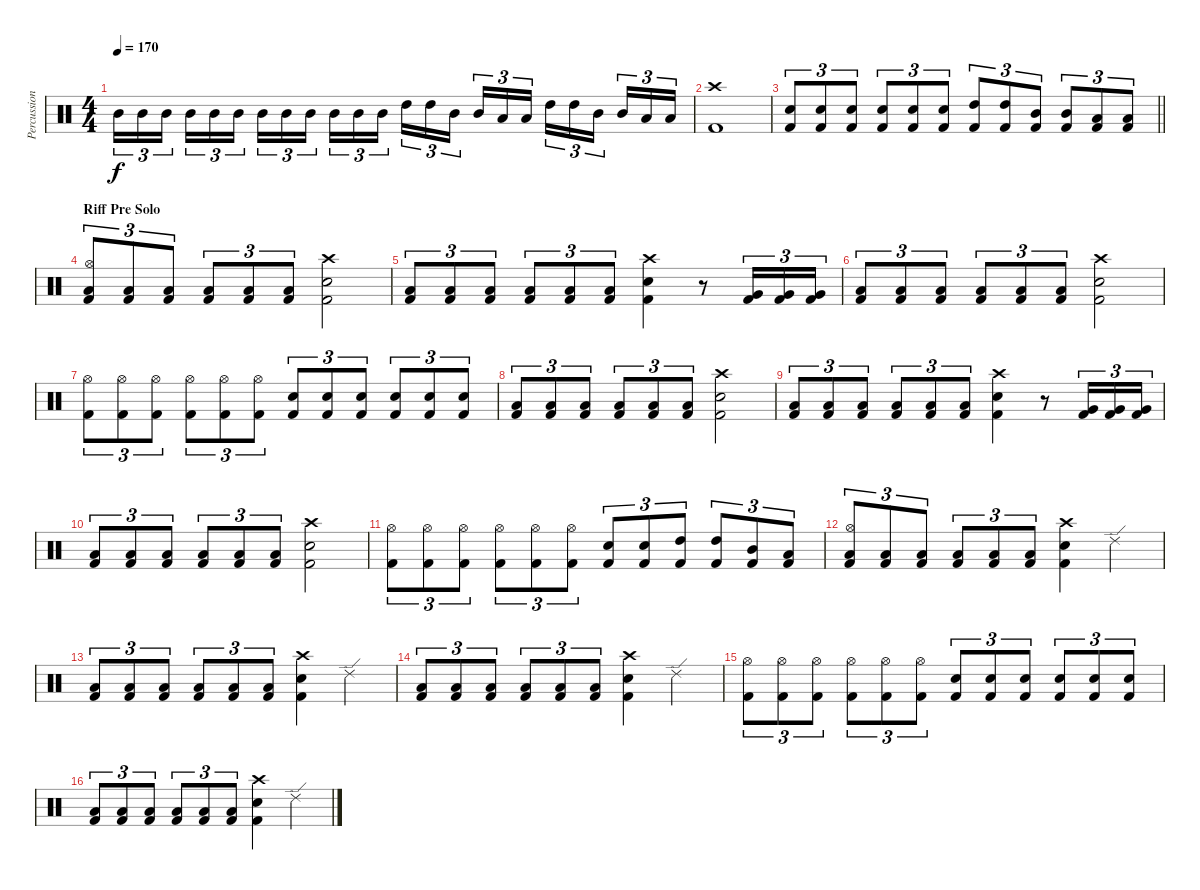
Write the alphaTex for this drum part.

\track ("Percussions" "Percussion") {instrument percussion}
\staff {score}
\articulation defaults
\ts (4 4)
\tempo 170
\clef neutral
\ks c "Mid Tom (hit)".16{tu (3 2) dy f} "Mid Tom (hit)".16{tu (3 2)} "Mid Tom (hit)".16{tu (3 2)} "Mid Tom (hit)".16{tu (3 2)} "Mid Tom (hit)".16{tu (3 2)} "Mid Tom (hit)".16{tu (3 2)} "Mid Tom (hit)".16{tu (3 2)} "Mid Tom (hit)".16{tu (3 2)} "Mid Tom (hit)".16{tu (3 2)} "Mid Tom (hit)".16{tu (3 2)} "Mid Tom (hit)".16{tu (3 2)} "Mid Tom (hit)".16{tu (3 2)} "High Tom (hit)".16{tu (3 2)} "High Tom (hit)".16{tu (3 2)} "Mid Tom (hit)".16{tu (3 2)} "Mid Tom (hit)".16{tu (3 2)} "Low Tom (hit)".16{tu (3 2)} "Low Tom (hit)".16{tu (3 2)} "High Tom (hit)".16{tu (3 2)} "High Tom (hit)".16{tu (3 2)} "Mid Tom (hit)".16{tu (3 2)} "Mid Tom (hit)".16{tu (3 2)} "Low Tom (hit)".16{tu (3 2)} "Low Tom (hit)".16{tu (3 2)}
|
("Crash high (hit)" "Kick (hit) 2").1 |
\barLineRight lightlight
("Snare (hit) 2" "Kick (hit) 2").8{tu (3 2)} ("Snare (hit) 2" "Kick (hit) 2").8{tu (3 2)} ("Snare (hit) 2" "Kick (hit) 2").8{tu (3 2)} ("Snare (hit) 2" "Kick (hit) 2").8{tu (3 2)} ("Snare (hit) 2" "Kick (hit) 2").8{tu (3 2)} ("Snare (hit) 2" "Kick (hit) 2").8{tu (3 2)} ("High Tom (hit)" "Kick (hit) 2").8{tu (3 2)} ("High Tom (hit)" "Kick (hit) 2").8{tu (3 2)} ("Mid Tom (hit)" "Kick (hit) 2").8{tu (3 2)} ("Mid Tom (hit)" "Kick (hit) 2").8{tu (3 2)} ("Low Tom (hit)" "Kick (hit) 2").8{tu (3 2)} ("Low Tom (hit)" "Kick (hit) 2").8{tu (3 2)} |
\section ("" "Riff Pre Solo")
("Hi-Hat (open)" "Low Floor Tom (hit)" "Kick (hit) 2").8{tu (3 2)} ("Low Floor Tom (hit)" "Kick (hit) 2").8{tu (3 2)} ("Low Floor Tom (hit)" "Kick (hit) 2").8{tu (3 2)} ("Low Floor Tom (hit)" "Kick (hit) 2").8{tu (3 2)} ("Low Floor Tom (hit)" "Kick (hit) 2").8{tu (3 2)} ("Low Floor Tom (hit)" "Kick (hit) 2").8{tu (3 2)} ("Crash high (hit)" "Snare (hit) 2" "Kick (hit) 2").2 |
("Low Floor Tom (hit)" "Kick (hit) 2").8{tu (3 2)} ("Low Floor Tom (hit)" "Kick (hit) 2").8{tu (3 2)} ("Low Floor Tom (hit)" "Kick (hit) 2").8{tu (3 2)} ("Low Floor Tom (hit)" "Kick (hit) 2").8{tu (3 2)} ("Low Floor Tom (hit)" "Kick (hit) 2").8{tu (3 2)} ("Low Floor Tom (hit)" "Kick (hit) 2").8{tu (3 2)} ("Crash high (hit)" "Snare (hit) 2" "Kick (hit) 2").4 r.8 ("Very Low Tom (hit)" "Kick (hit) 2").16{tu (3 2)} ("Very Low Tom (hit)" "Kick (hit) 2").16{tu (3 2)} ("Very Low Tom (hit)" "Kick (hit) 2").16{tu (3 2)} |
("Low Floor Tom (hit)" "Kick (hit) 2").8{tu (3 2)} ("Low Floor Tom (hit)" "Kick (hit) 2").8{tu (3 2)} ("Low Floor Tom (hit)" "Kick (hit) 2").8{tu (3 2)} ("Low Floor Tom (hit)" "Kick (hit) 2").8{tu (3 2)} ("Low Floor Tom (hit)" "Kick (hit) 2").8{tu (3 2)} ("Low Floor Tom (hit)" "Kick (hit) 2").8{tu (3 2)} ("Crash high (hit)" "Snare (hit) 2" "Kick (hit) 2").2 |
("Hi-Hat (open)" "Kick (hit) 2").8{tu (3 2)} ("Hi-Hat (open)" "Kick (hit) 2").8{tu (3 2)} ("Hi-Hat (open)" "Kick (hit) 2").8{tu (3 2)} ("Hi-Hat (open)" "Kick (hit) 2").8{tu (3 2)} ("Hi-Hat (open)" "Kick (hit) 2").8{tu (3 2)} ("Hi-Hat (open)" "Kick (hit) 2").8{tu (3 2)} ("Snare (hit) 2" "Kick (hit) 2").8{tu (3 2)} ("Snare (hit) 2" "Kick (hit) 2").8{tu (3 2)} ("Snare (hit) 2" "Kick (hit) 2").8{tu (3 2)} ("Snare (hit) 2" "Kick (hit) 2").8{tu (3 2)} ("Snare (hit) 2" "Kick (hit) 2").8{tu (3 2)} ("Snare (hit) 2" "Kick (hit) 2").8{tu (3 2)} |
("Low Floor Tom (hit)" "Kick (hit) 2").8{tu (3 2)} ("Low Floor Tom (hit)" "Kick (hit) 2").8{tu (3 2)} ("Low Floor Tom (hit)" "Kick (hit) 2").8{tu (3 2)} ("Low Floor Tom (hit)" "Kick (hit) 2").8{tu (3 2)} ("Low Floor Tom (hit)" "Kick (hit) 2").8{tu (3 2)} ("Low Floor Tom (hit)" "Kick (hit) 2").8{tu (3 2)} ("Crash high (hit)" "Snare (hit) 2" "Kick (hit) 2").2 |
("Low Floor Tom (hit)" "Kick (hit) 2").8{tu (3 2)} ("Low Floor Tom (hit)" "Kick (hit) 2").8{tu (3 2)} ("Low Floor Tom (hit)" "Kick (hit) 2").8{tu (3 2)} ("Low Floor Tom (hit)" "Kick (hit) 2").8{tu (3 2)} ("Low Floor Tom (hit)" "Kick (hit) 2").8{tu (3 2)} ("Low Floor Tom (hit)" "Kick (hit) 2").8{tu (3 2)} ("Crash high (hit)" "Snare (hit) 2" "Kick (hit) 2").4 r.8 ("Very Low Tom (hit)" "Kick (hit) 2").16{tu (3 2)} ("Very Low Tom (hit)" "Kick (hit) 2").16{tu (3 2)} ("Very Low Tom (hit)" "Kick (hit) 2").16{tu (3 2)} |
("Low Floor Tom (hit)" "Kick (hit) 2").8{tu (3 2)} ("Low Floor Tom (hit)" "Kick (hit) 2").8{tu (3 2)} ("Low Floor Tom (hit)" "Kick (hit) 2").8{tu (3 2)} ("Low Floor Tom (hit)" "Kick (hit) 2").8{tu (3 2)} ("Low Floor Tom (hit)" "Kick (hit) 2").8{tu (3 2)} ("Low Floor Tom (hit)" "Kick (hit) 2").8{tu (3 2)} ("Crash high (hit)" "Snare (hit) 2" "Kick (hit) 2").2 |
("Hi-Hat (open)" "Kick (hit) 2").8{tu (3 2)} ("Hi-Hat (open)" "Kick (hit) 2").8{tu (3 2)} ("Hi-Hat (open)" "Kick (hit) 2").8{tu (3 2)} ("Hi-Hat (open)" "Kick (hit) 2").8{tu (3 2)} ("Hi-Hat (open)" "Kick (hit) 2").8{tu (3 2)} ("Hi-Hat (open)" "Kick (hit) 2").8{tu (3 2)} ("Snare (hit) 2" "Kick (hit) 2").8{tu (3 2)} ("Snare (hit) 2" "Kick (hit) 2").8{tu (3 2)} ("High Tom (hit)" "Kick (hit) 2").8{tu (3 2)} ("High Tom (hit)" "Kick (hit) 2").8{tu (3 2)} ("Mid Tom (hit)" "Kick (hit) 2").8{tu (3 2)} ("Low Tom (hit)" "Kick (hit) 2").8{tu (3 2)} |
("Hi-Hat (open)" "Low Floor Tom (hit)" "Kick (hit) 2").8{tu (3 2)} ("Low Floor Tom (hit)" "Kick (hit) 2").8{tu (3 2)} ("Low Floor Tom (hit)" "Kick (hit) 2").8{tu (3 2)} ("Low Floor Tom (hit)" "Kick (hit) 2").8{tu (3 2)} ("Low Floor Tom (hit)" "Kick (hit) 2").8{tu (3 2)} ("Low Floor Tom (hit)" "Kick (hit) 2").8{tu (3 2)} ("Crash high (hit)" "Snare (hit) 2" "Kick (hit) 2").4 "Ride (edge) 2".4 |
("Low Floor Tom (hit)" "Kick (hit) 2").8{tu (3 2)} ("Low Floor Tom (hit)" "Kick (hit) 2").8{tu (3 2)} ("Low Floor Tom (hit)" "Kick (hit) 2").8{tu (3 2)} ("Low Floor Tom (hit)" "Kick (hit) 2").8{tu (3 2)} ("Low Floor Tom (hit)" "Kick (hit) 2").8{tu (3 2)} ("Low Floor Tom (hit)" "Kick (hit) 2").8{tu (3 2)} ("Crash high (hit)" "Snare (hit) 2" "Kick (hit) 2").4 "Ride (edge) 2".4 |
("Low Floor Tom (hit)" "Kick (hit) 2").8{tu (3 2)} ("Low Floor Tom (hit)" "Kick (hit) 2").8{tu (3 2)} ("Low Floor Tom (hit)" "Kick (hit) 2").8{tu (3 2)} ("Low Floor Tom (hit)" "Kick (hit) 2").8{tu (3 2)} ("Low Floor Tom (hit)" "Kick (hit) 2").8{tu (3 2)} ("Low Floor Tom (hit)" "Kick (hit) 2").8{tu (3 2)} ("Crash high (hit)" "Snare (hit) 2" "Kick (hit) 2").4 "Ride (edge) 2".4 |
("Hi-Hat (open)" "Kick (hit) 2").8{tu (3 2)} ("Hi-Hat (open)" "Kick (hit) 2").8{tu (3 2)} ("Hi-Hat (open)" "Kick (hit) 2").8{tu (3 2)} ("Hi-Hat (open)" "Kick (hit) 2").8{tu (3 2)} ("Hi-Hat (open)" "Kick (hit) 2").8{tu (3 2)} ("Hi-Hat (open)" "Kick (hit) 2").8{tu (3 2)} ("Snare (hit) 2" "Kick (hit) 2").8{tu (3 2)} ("Snare (hit) 2" "Kick (hit) 2").8{tu (3 2)} ("Snare (hit) 2" "Kick (hit) 2").8{tu (3 2)} ("Snare (hit) 2" "Kick (hit) 2").8{tu (3 2)} ("Snare (hit) 2" "Kick (hit) 2").8{tu (3 2)} ("Snare (hit) 2" "Kick (hit) 2").8{tu (3 2)} |
("Low Floor Tom (hit)" "Kick (hit) 2").8{tu (3 2)} ("Low Floor Tom (hit)" "Kick (hit) 2").8{tu (3 2)} ("Low Floor Tom (hit)" "Kick (hit) 2").8{tu (3 2)} ("Low Floor Tom (hit)" "Kick (hit) 2").8{tu (3 2)} ("Low Floor Tom (hit)" "Kick (hit) 2").8{tu (3 2)} ("Low Floor Tom (hit)" "Kick (hit) 2").8{tu (3 2)} ("Crash high (hit)" "Snare (hit) 2" "Kick (hit) 2").4 "Ride (edge) 2".4
